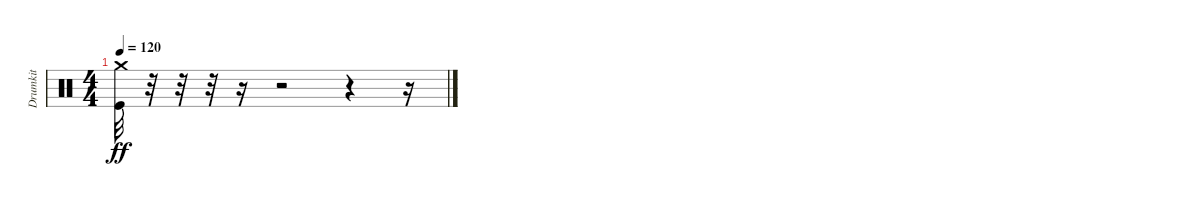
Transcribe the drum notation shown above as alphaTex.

\track ("Drumkit" "Drumkit") {instrument percussion}
\staff {score}
\articulation defaults
\ts (4 4)
\tempo 120
\clef neutral
\ks c
("Kick (hit)" "Crash medium (hit)").32{dy ff} r.32 r.32 r.32 r.16 r.2 r.4 r.16
